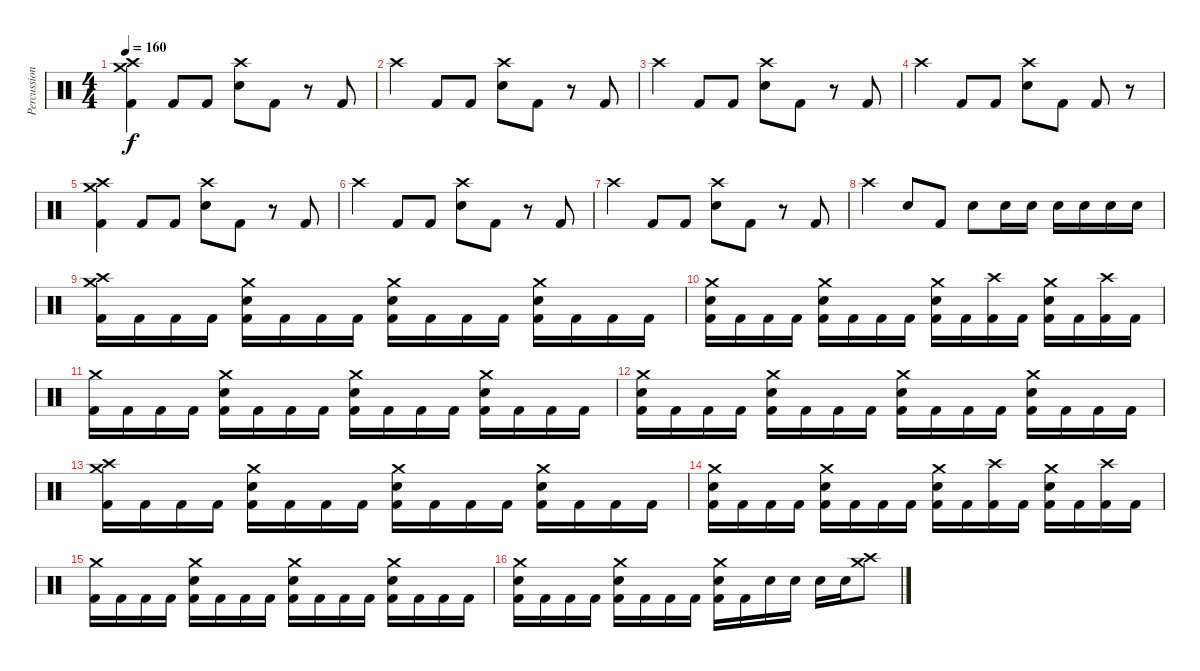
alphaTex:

\track ("Percussion" "Percussion") {instrument percussion}
\staff {score}
\articulation defaults
\ts (4 4)
\tempo 160
\clef neutral
\ks c
("Crash high (hit)" "Crash medium (hit)" "Kick (hit) 2").4{dy f} "Kick (hit) 2".8 "Kick (hit) 2".8 ("Crash high (hit)" "Electric Snare (hit)").8 "Kick (hit) 2".8 r.8 "Kick (hit) 2".8 |
"Crash high (hit)".4 "Kick (hit) 2".8 "Kick (hit) 2".8 ("Crash high (hit)" "Electric Snare (hit)").8 "Kick (hit) 2".8 r.8 "Kick (hit) 2".8 |
"Crash high (hit)".4 "Kick (hit) 2".8 "Kick (hit) 2".8 ("Crash high (hit)" "Electric Snare (hit)").8 "Kick (hit) 2".8 r.8 "Kick (hit) 2".8 |
"Crash high (hit)".4 "Kick (hit) 2".8 "Kick (hit) 2".8 ("Crash high (hit)" "Electric Snare (hit)").8 "Kick (hit) 2".8 "Kick (hit) 2".8 r.8 |
("Crash high (hit)" "Crash medium (hit)" "Kick (hit) 2").4 "Kick (hit) 2".8 "Kick (hit) 2".8 ("Crash high (hit)" "Electric Snare (hit)").8 "Kick (hit) 2".8 r.8 "Kick (hit) 2".8 |
"Crash high (hit)".4 "Kick (hit) 2".8 "Kick (hit) 2".8 ("Crash high (hit)" "Electric Snare (hit)").8 "Kick (hit) 2".8 r.8 "Kick (hit) 2".8 |
"Crash high (hit)".4 "Kick (hit) 2".8 "Kick (hit) 2".8 ("Crash high (hit)" "Electric Snare (hit)").8 "Kick (hit) 2".8 r.8 "Kick (hit) 2".8 |
"Crash high (hit)".4 "Electric Snare (hit)".8 "Kick (hit) 2".8 "Electric Snare (hit)".8 "Electric Snare (hit)".16 "Electric Snare (hit)".16 "Electric Snare (hit)".16 "Electric Snare (hit)".16 "Electric Snare (hit)".16 "Electric Snare (hit)".16 |
("Crash medium (hit)" "Crash high (hit)" "Kick (hit) 2").16 "Kick (hit) 2".16 "Kick (hit) 2".16 "Kick (hit) 2".16 ("Crash medium (hit)" "Electric Snare (hit)" "Kick (hit) 2").16 "Kick (hit) 2".16 "Kick (hit) 2".16 "Kick (hit) 2".16 ("Crash medium (hit)" "Electric Snare (hit)" "Kick (hit) 2").16 "Kick (hit) 2".16 "Kick (hit) 2".16 "Kick (hit) 2".16 ("Crash medium (hit)" "Electric Snare (hit)" "Kick (hit) 2").16 "Kick (hit) 2".16 "Kick (hit) 2".16 "Kick (hit) 2".16 |
("Crash medium (hit)" "Electric Snare (hit)" "Kick (hit) 2").16 "Kick (hit) 2".16 "Kick (hit) 2".16 "Kick (hit) 2".16 ("Crash medium (hit)" "Electric Snare (hit)" "Kick (hit) 2").16 "Kick (hit) 2".16 "Kick (hit) 2".16 "Kick (hit) 2".16 ("Crash medium (hit)" "Electric Snare (hit)" "Kick (hit) 2").16 "Kick (hit) 2".16 ("Crash high (hit)" "Kick (hit) 2").16 "Kick (hit) 2".16 ("Crash medium (hit)" "Electric Snare (hit)" "Kick (hit) 2").16 "Kick (hit) 2".16 ("Crash high (hit)" "Kick (hit) 2").16 "Kick (hit) 2".16 |
("Crash medium (hit)" "Kick (hit) 2").16 "Kick (hit) 2".16 "Kick (hit) 2".16 "Kick (hit) 2".16 ("Crash medium (hit)" "Electric Snare (hit)" "Kick (hit) 2").16 "Kick (hit) 2".16 "Kick (hit) 2".16 "Kick (hit) 2".16 ("Crash medium (hit)" "Electric Snare (hit)" "Kick (hit) 2").16 "Kick (hit) 2".16 "Kick (hit) 2".16 "Kick (hit) 2".16 ("Crash medium (hit)" "Electric Snare (hit)" "Kick (hit) 2").16 "Kick (hit) 2".16 "Kick (hit) 2".16 "Kick (hit) 2".16 |
("Crash medium (hit)" "Electric Snare (hit)" "Kick (hit) 2").16 "Kick (hit) 2".16 "Kick (hit) 2".16 "Kick (hit) 2".16 ("Crash medium (hit)" "Electric Snare (hit)" "Kick (hit) 2").16 "Kick (hit) 2".16 "Kick (hit) 2".16 "Kick (hit) 2".16 ("Crash medium (hit)" "Electric Snare (hit)" "Kick (hit) 2").16 "Kick (hit) 2".16 "Kick (hit) 2".16 "Kick (hit) 2".16 ("Crash medium (hit)" "Electric Snare (hit)" "Kick (hit) 2").16 "Kick (hit) 2".16 "Kick (hit) 2".16 "Kick (hit) 2".16 |
("Crash medium (hit)" "Crash high (hit)" "Kick (hit) 2").16 "Kick (hit) 2".16 "Kick (hit) 2".16 "Kick (hit) 2".16 ("Crash medium (hit)" "Electric Snare (hit)" "Kick (hit) 2").16 "Kick (hit) 2".16 "Kick (hit) 2".16 "Kick (hit) 2".16 ("Crash medium (hit)" "Electric Snare (hit)" "Kick (hit) 2").16 "Kick (hit) 2".16 "Kick (hit) 2".16 "Kick (hit) 2".16 ("Crash medium (hit)" "Electric Snare (hit)" "Kick (hit) 2").16 "Kick (hit) 2".16 "Kick (hit) 2".16 "Kick (hit) 2".16 |
("Crash medium (hit)" "Electric Snare (hit)" "Kick (hit) 2").16 "Kick (hit) 2".16 "Kick (hit) 2".16 "Kick (hit) 2".16 ("Crash medium (hit)" "Electric Snare (hit)" "Kick (hit) 2").16 "Kick (hit) 2".16 "Kick (hit) 2".16 "Kick (hit) 2".16 ("Crash medium (hit)" "Electric Snare (hit)" "Kick (hit) 2").16 "Kick (hit) 2".16 ("Crash high (hit)" "Kick (hit) 2").16 "Kick (hit) 2".16 ("Crash medium (hit)" "Electric Snare (hit)" "Kick (hit) 2").16 "Kick (hit) 2".16 ("Crash high (hit)" "Kick (hit) 2").16 "Kick (hit) 2".16 |
("Crash medium (hit)" "Kick (hit) 2").16 "Kick (hit) 2".16 "Kick (hit) 2".16 "Kick (hit) 2".16 ("Crash medium (hit)" "Electric Snare (hit)" "Kick (hit) 2").16 "Kick (hit) 2".16 "Kick (hit) 2".16 "Kick (hit) 2".16 ("Crash medium (hit)" "Electric Snare (hit)" "Kick (hit) 2").16 "Kick (hit) 2".16 "Kick (hit) 2".16 "Kick (hit) 2".16 ("Crash medium (hit)" "Electric Snare (hit)" "Kick (hit) 2").16 "Kick (hit) 2".16 "Kick (hit) 2".16 "Kick (hit) 2".16 |
("Crash medium (hit)" "Electric Snare (hit)" "Kick (hit) 2").16 "Kick (hit) 2".16 "Kick (hit) 2".16 "Kick (hit) 2".16 ("Crash medium (hit)" "Electric Snare (hit)" "Kick (hit) 2").16 "Kick (hit) 2".16 "Kick (hit) 2".16 "Kick (hit) 2".16 ("Crash medium (hit)" "Electric Snare (hit)" "Kick (hit) 2").16 "Kick (hit) 2".16 "Electric Snare (hit)".16 "Electric Snare (hit)".16 "Electric Snare (hit)".16 "Electric Snare (hit)".16 ("Crash high (hit)" "Crash medium (hit)").8
